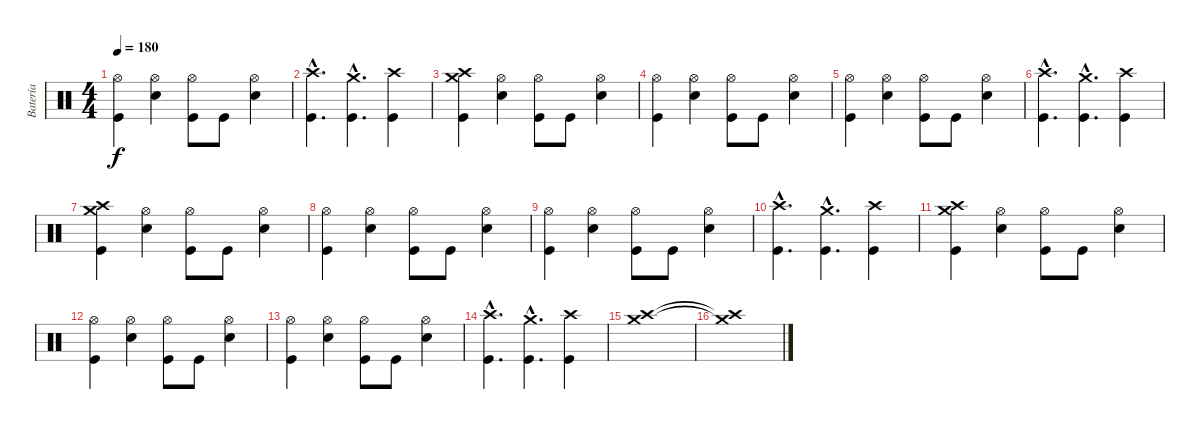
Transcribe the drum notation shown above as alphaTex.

\track ("Batería" "Batería") {instrument percussion}
\staff {score}
\articulation defaults
\ts (4 4)
\tempo 180
\clef neutral
\ks c
("Hi-Hat (open)" "Kick (hit)").4{dy f} ("Hi-Hat (open)" "Snare (hit) 2").4 ("Hi-Hat (open)" "Kick (hit)").8 "Kick (hit)".8 ("Hi-Hat (open)" "Snare (hit) 2").4 |
("Crash high (hit)"{hac} "Kick (hit)"{hac}).4{d} ("Crash medium (hit)"{hac} "Kick (hit)"{hac}).4{d} ("Crash high (hit)" "Kick (hit)").4 |
("Crash medium (hit)" "Crash high (hit)" "Kick (hit)").4 ("Hi-Hat (open)" "Snare (hit) 2").4 ("Hi-Hat (open)" "Kick (hit)").8 "Kick (hit)".8 ("Hi-Hat (open)" "Snare (hit) 2").4 |
("Hi-Hat (open)" "Kick (hit)").4 ("Hi-Hat (open)" "Snare (hit) 2").4 ("Hi-Hat (open)" "Kick (hit)").8 "Kick (hit)".8 ("Hi-Hat (open)" "Snare (hit) 2").4 |
("Hi-Hat (open)" "Kick (hit)").4 ("Hi-Hat (open)" "Snare (hit) 2").4 ("Hi-Hat (open)" "Kick (hit)").8 "Kick (hit)".8 ("Hi-Hat (open)" "Snare (hit) 2").4 |
("Crash high (hit)"{hac} "Kick (hit)"{hac}).4{d} ("Crash medium (hit)"{hac} "Kick (hit)"{hac}).4{d} ("Crash high (hit)" "Kick (hit)").4 |
("Crash medium (hit)" "Crash high (hit)" "Kick (hit)").4 ("Hi-Hat (open)" "Snare (hit) 2").4 ("Hi-Hat (open)" "Kick (hit)").8 "Kick (hit)".8 ("Hi-Hat (open)" "Snare (hit) 2").4 |
("Hi-Hat (open)" "Kick (hit)").4 ("Hi-Hat (open)" "Snare (hit) 2").4 ("Hi-Hat (open)" "Kick (hit)").8 "Kick (hit)".8 ("Hi-Hat (open)" "Snare (hit) 2").4 |
("Hi-Hat (open)" "Kick (hit)").4 ("Hi-Hat (open)" "Snare (hit) 2").4 ("Hi-Hat (open)" "Kick (hit)").8 "Kick (hit)".8 ("Hi-Hat (open)" "Snare (hit) 2").4 |
("Crash high (hit)"{hac} "Kick (hit)"{hac}).4{d} ("Crash medium (hit)"{hac} "Kick (hit)"{hac}).4{d} ("Crash high (hit)" "Kick (hit)").4 |
("Crash medium (hit)" "Crash high (hit)" "Kick (hit)").4 ("Hi-Hat (open)" "Snare (hit) 2").4 ("Hi-Hat (open)" "Kick (hit)").8 "Kick (hit)".8 ("Hi-Hat (open)" "Snare (hit) 2").4 |
("Hi-Hat (open)" "Kick (hit)").4 ("Hi-Hat (open)" "Snare (hit) 2").4 ("Hi-Hat (open)" "Kick (hit)").8 "Kick (hit)".8 ("Hi-Hat (open)" "Snare (hit) 2").4 |
("Hi-Hat (open)" "Kick (hit)").4 ("Hi-Hat (open)" "Snare (hit) 2").4 ("Hi-Hat (open)" "Kick (hit)").8 "Kick (hit)".8 ("Hi-Hat (open)" "Snare (hit) 2").4 |
("Crash high (hit)"{hac} "Kick (hit)"{hac}).4{d} ("Crash medium (hit)"{hac} "Kick (hit)"{hac}).4{d} ("Crash high (hit)" "Kick (hit)").4 |
("Crash medium (hit)" "Crash high (hit)").1 |
("Crash medium (hit)"{t} "Crash high (hit)"{t}).1
